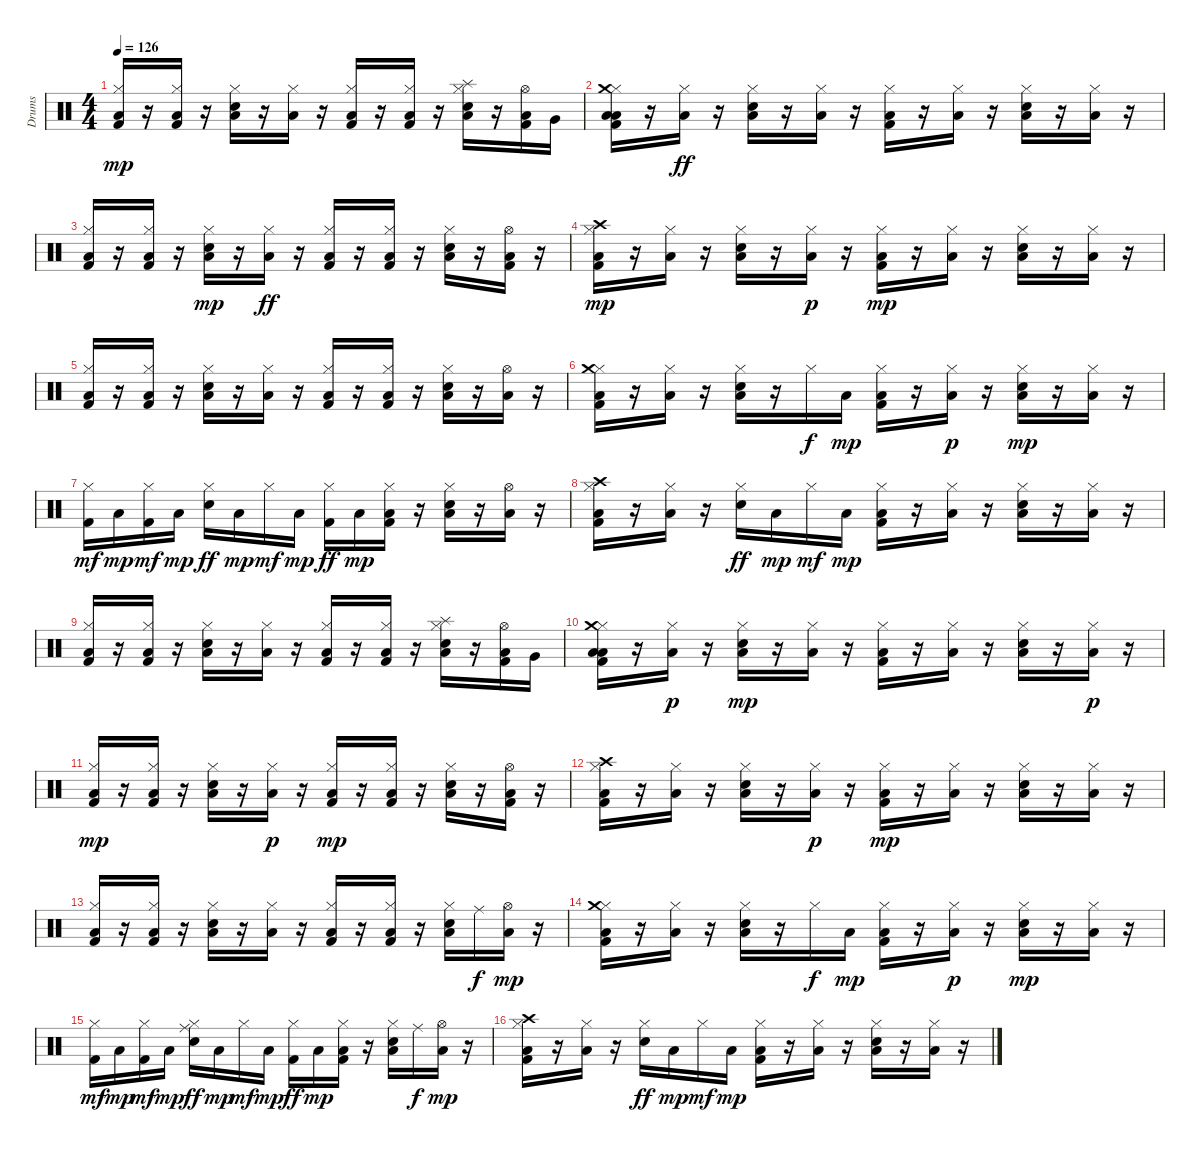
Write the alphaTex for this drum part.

\track ("Drums" "Drums") {instrument percussion}
\staff {score}
\articulation defaults
\ts (4 4)
\tempo 126
\clef neutral
\ks c
("Kick (hit) 2" "Hi-Hat (closed)" "Low Floor Tom (hit)").16{dy mp} r.16 ("Hi-Hat (closed)" "Kick (hit) 2" "Low Floor Tom (hit)").16 r.16 ("Hi-Hat (closed)" "Snare (hit) 2" "Low Floor Tom (hit)").16 r.16 ("Hi-Hat (closed)" "Low Floor Tom (hit)").16 r.16 ("Kick (hit) 2" "Hi-Hat (closed)" "Low Floor Tom (hit)").16 r.16 ("Hi-Hat (closed)" "Kick (hit) 2" "Low Floor Tom (hit)").16 r.16 ("Hi-Hat (closed)" "Snare (hit) 2" "Low Floor Tom (hit)" "Splash (hit)").16 r.16 ("Hi-Hat (open)" "Kick (hit) 2" "Low Floor Tom (hit)").16 "Very Low Tom (hit)".16 |
("Kick (hit) 2" "Hi-Hat (closed)" "Low Floor Tom (hit)" "Low Floor Tom (hit)" "Crash medium (hit)").16 r.16 ("Hi-Hat (closed)" "Low Floor Tom (hit)").16{dy ff} r.16 ("Hi-Hat (closed)" "Snare (hit) 2" "Low Floor Tom (hit)").16 r.16 ("Hi-Hat (closed)" "Low Floor Tom (hit)").16 r.16 ("Kick (hit) 2" "Hi-Hat (closed)" "Low Floor Tom (hit)").16 r.16 ("Hi-Hat (closed)" "Low Floor Tom (hit)").16 r.16 ("Hi-Hat (closed)" "Snare (hit) 2" "Low Floor Tom (hit)").16 r.16 ("Hi-Hat (closed)" "Low Floor Tom (hit)").16 r.16 |
("Kick (hit) 2" "Hi-Hat (closed)" "Low Floor Tom (hit)").16 r.16 ("Hi-Hat (closed)" "Kick (hit) 2" "Low Floor Tom (hit)").16 r.16 ("Hi-Hat (closed)" "Snare (hit) 2" "Low Floor Tom (hit)").16{dy mp} r.16 ("Hi-Hat (closed)" "Low Floor Tom (hit)").16{dy ff} r.16 ("Hi-Hat (closed)" "Kick (hit) 2" "Low Floor Tom (hit)").16 r.16 ("Kick (hit) 2" "Hi-Hat (closed)" "Low Floor Tom (hit)").16 r.16 ("Hi-Hat (closed)" "Snare (hit) 2" "Low Floor Tom (hit)").16 r.16 ("Hi-Hat (open)" "Kick (hit) 2" "Low Floor Tom (hit)").16 r.16 |
("Hi-Hat (closed)" "Kick (hit) 2" "Low Floor Tom (hit)" "Crash high (hit)").16{dy mp} r.16 ("Hi-Hat (closed)" "Low Floor Tom (hit)").16 r.16 ("Hi-Hat (closed)" "Snare (hit) 2" "Low Floor Tom (hit)").16 r.16 ("Hi-Hat (closed)" "Low Floor Tom (hit)").16{dy p} r.16 ("Kick (hit) 2" "Hi-Hat (closed)" "Low Floor Tom (hit)").16{dy mp} r.16 ("Hi-Hat (closed)" "Low Floor Tom (hit)").16 r.16 ("Snare (hit) 2" "Hi-Hat (closed)" "Low Floor Tom (hit)").16 r.16 ("Hi-Hat (closed)" "Low Floor Tom (hit)").16 r.16 |
("Hi-Hat (closed)" "Kick (hit) 2" "Low Floor Tom (hit)").16 r.16 ("Kick (hit) 2" "Hi-Hat (closed)" "Low Floor Tom (hit)").16 r.16 ("Hi-Hat (closed)" "Snare (hit) 2" "Low Floor Tom (hit)").16 r.16 ("Hi-Hat (closed)" "Low Floor Tom (hit)").16 r.16 ("Kick (hit) 2" "Hi-Hat (closed)" "Low Floor Tom (hit)").16 r.16 ("Hi-Hat (closed)" "Kick (hit) 2" "Low Floor Tom (hit)").16 r.16 ("Snare (hit) 2" "Hi-Hat (closed)" "Low Floor Tom (hit)").16 r.16 ("Hi-Hat (open)" "Low Floor Tom (hit)").16 r.16 |
("Hi-Hat (closed)" "Kick (hit) 2" "Low Floor Tom (hit)" "Crash medium (hit)").16 r.16 ("Hi-Hat (closed)" "Low Floor Tom (hit)").16 r.16 ("Snare (hit) 2" "Hi-Hat (closed)" "Low Floor Tom (hit)").16 r.16 "Hi-Hat (closed)".16{dy f} "Low Floor Tom (hit)".16{dy mp} ("Kick (hit) 2" "Hi-Hat (closed)" "Low Floor Tom (hit)").16 r.16 ("Hi-Hat (closed)" "Low Floor Tom (hit)").16{dy p} r.16 ("Snare (hit) 2" "Hi-Hat (closed)" "Low Floor Tom (hit)").16{dy mp} r.16 ("Hi-Hat (closed)" "Low Floor Tom (hit)").16 r.16 |
("Kick (hit) 2" "Hi-Hat (closed)").16{dy mf} "Low Floor Tom (hit)".16{dy mp} ("Hi-Hat (closed)" "Kick (hit) 2").16{dy mf} "Low Floor Tom (hit)".16{dy mp} ("Hi-Hat (closed)" "Snare (hit) 2").16{dy ff} "Low Floor Tom (hit)".16{dy mp} "Hi-Hat (closed)".16{dy mf} "Low Floor Tom (hit)".16{dy mp} ("Hi-Hat (closed)" "Kick (hit) 2").16{dy ff} "Low Floor Tom (hit)".16{dy mp} ("Hi-Hat (closed)" "Kick (hit) 2" "Low Floor Tom (hit)").16 r.16 ("Hi-Hat (closed)" "Snare (hit) 2" "Low Floor Tom (hit)").16 r.16 ("Hi-Hat (open)" "Low Floor Tom (hit)").16 r.16 |
("Hi-Hat (closed)" "Kick (hit) 2" "Low Floor Tom (hit)" "Crash high (hit)").16 r.16 ("Hi-Hat (closed)" "Low Floor Tom (hit)").16 r.16 ("Hi-Hat (closed)" "Snare (hit) 2").16{dy ff} "Low Floor Tom (hit)".16{dy mp} "Hi-Hat (closed)".16{dy mf} "Low Floor Tom (hit)".16{dy mp} ("Kick (hit) 2" "Hi-Hat (closed)" "Low Floor Tom (hit)").16 r.16 ("Hi-Hat (closed)" "Low Floor Tom (hit)").16 r.16 ("Hi-Hat (closed)" "Snare (hit) 2" "Low Floor Tom (hit)").16 r.16 ("Hi-Hat (closed)" "Low Floor Tom (hit)").16 r.16 |
("Kick (hit) 2" "Hi-Hat (closed)" "Low Floor Tom (hit)").16 r.16 ("Hi-Hat (closed)" "Kick (hit) 2" "Low Floor Tom (hit)").16 r.16 ("Hi-Hat (closed)" "Snare (hit) 2" "Low Floor Tom (hit)").16 r.16 ("Hi-Hat (closed)" "Low Floor Tom (hit)").16 r.16 ("Kick (hit) 2" "Hi-Hat (closed)" "Low Floor Tom (hit)").16 r.16 ("Hi-Hat (closed)" "Kick (hit) 2" "Low Floor Tom (hit)").16 r.16 ("Hi-Hat (closed)" "Snare (hit) 2" "Low Floor Tom (hit)" "Splash (hit)").16 r.16 ("Hi-Hat (open)" "Kick (hit) 2" "Low Floor Tom (hit)").16 "Very Low Tom (hit)".16 |
("Kick (hit) 2" "Hi-Hat (closed)" "Low Floor Tom (hit)" "Low Floor Tom (hit)" "Crash medium (hit)").16 r.16 ("Hi-Hat (closed)" "Low Floor Tom (hit)").16{dy p} r.16 ("Hi-Hat (closed)" "Snare (hit) 2" "Low Floor Tom (hit)").16{dy mp} r.16 ("Hi-Hat (closed)" "Low Floor Tom (hit)").16 r.16 ("Kick (hit) 2" "Hi-Hat (closed)" "Low Floor Tom (hit)").16 r.16 ("Hi-Hat (closed)" "Low Floor Tom (hit)").16 r.16 ("Hi-Hat (closed)" "Snare (hit) 2" "Low Floor Tom (hit)").16 r.16 ("Hi-Hat (closed)" "Low Floor Tom (hit)").16{dy p} r.16 |
("Kick (hit) 2" "Hi-Hat (closed)" "Low Floor Tom (hit)").16{dy mp} r.16 ("Hi-Hat (closed)" "Kick (hit) 2" "Low Floor Tom (hit)").16 r.16 ("Hi-Hat (closed)" "Snare (hit) 2" "Low Floor Tom (hit)").16 r.16 ("Hi-Hat (closed)" "Low Floor Tom (hit)").16{dy p} r.16 ("Hi-Hat (closed)" "Kick (hit) 2" "Low Floor Tom (hit)").16{dy mp} r.16 ("Kick (hit) 2" "Hi-Hat (closed)" "Low Floor Tom (hit)").16 r.16 ("Hi-Hat (closed)" "Snare (hit) 2" "Low Floor Tom (hit)").16 r.16 ("Hi-Hat (open)" "Kick (hit) 2" "Low Floor Tom (hit)").16 r.16 |
("Hi-Hat (closed)" "Kick (hit) 2" "Low Floor Tom (hit)" "Crash high (hit)").16 r.16 ("Hi-Hat (closed)" "Low Floor Tom (hit)").16 r.16 ("Hi-Hat (closed)" "Snare (hit) 2" "Low Floor Tom (hit)").16 r.16 ("Hi-Hat (closed)" "Low Floor Tom (hit)").16{dy p} r.16 ("Kick (hit) 2" "Hi-Hat (closed)" "Low Floor Tom (hit)").16{dy mp} r.16 ("Hi-Hat (closed)" "Low Floor Tom (hit)").16 r.16 ("Snare (hit) 2" "Hi-Hat (closed)" "Low Floor Tom (hit)").16 r.16 ("Hi-Hat (closed)" "Low Floor Tom (hit)").16 r.16 |
("Hi-Hat (closed)" "Kick (hit) 2" "Low Floor Tom (hit)").16 r.16 ("Kick (hit) 2" "Hi-Hat (closed)" "Low Floor Tom (hit)").16 r.16 ("Hi-Hat (closed)" "Snare (hit) 2" "Low Floor Tom (hit)").16 r.16 ("Hi-Hat (closed)" "Low Floor Tom (hit)").16 r.16 ("Kick (hit) 2" "Hi-Hat (closed)" "Low Floor Tom (hit)").16 r.16 ("Hi-Hat (closed)" "Kick (hit) 2" "Low Floor Tom (hit)").16 r.16 ("Snare (hit) 2" "Hi-Hat (closed)" "Low Floor Tom (hit)").16 "Ride (middle)".16{dy f} ("Hi-Hat (open)" "Low Floor Tom (hit)").16{dy mp} r.16 |
("Hi-Hat (closed)" "Kick (hit) 2" "Low Floor Tom (hit)" "Crash medium (hit)").16 r.16 ("Hi-Hat (closed)" "Low Floor Tom (hit)").16 r.16 ("Snare (hit) 2" "Hi-Hat (closed)" "Low Floor Tom (hit)").16 r.16 "Hi-Hat (closed)".16{dy f} "Low Floor Tom (hit)".16{dy mp} ("Kick (hit) 2" "Hi-Hat (closed)" "Low Floor Tom (hit)").16 r.16 ("Hi-Hat (closed)" "Low Floor Tom (hit)").16{dy p} r.16 ("Snare (hit) 2" "Hi-Hat (closed)" "Low Floor Tom (hit)").16{dy mp} r.16 ("Hi-Hat (closed)" "Low Floor Tom (hit)").16 r.16 |
("Kick (hit) 2" "Hi-Hat (closed)").16{dy mf} "Low Floor Tom (hit)".16{dy mp} ("Hi-Hat (closed)" "Kick (hit) 2").16{dy mf} "Low Floor Tom (hit)".16{dy mp} ("Hi-Hat (closed)" "Snare (hit) 2" "Ride (middle)").16{dy ff} "Low Floor Tom (hit)".16{dy mp} "Hi-Hat (closed)".16{dy mf} "Low Floor Tom (hit)".16{dy mp} ("Hi-Hat (closed)" "Kick (hit) 2").16{dy ff} "Low Floor Tom (hit)".16{dy mp} ("Hi-Hat (closed)" "Kick (hit) 2" "Low Floor Tom (hit)").16 r.16 ("Hi-Hat (closed)" "Snare (hit) 2" "Low Floor Tom (hit)").16 "Ride (middle)".16{dy f} ("Hi-Hat (open)" "Low Floor Tom (hit)").16{dy mp} r.16 |
("Hi-Hat (closed)" "Kick (hit) 2" "Low Floor Tom (hit)" "Crash high (hit)").16 r.16 ("Hi-Hat (closed)" "Low Floor Tom (hit)").16 r.16 ("Hi-Hat (closed)" "Snare (hit) 2").16{dy ff} "Low Floor Tom (hit)".16{dy mp} "Hi-Hat (closed)".16{dy mf} "Low Floor Tom (hit)".16{dy mp} ("Kick (hit) 2" "Hi-Hat (closed)" "Low Floor Tom (hit)").16 r.16 ("Hi-Hat (closed)" "Low Floor Tom (hit)").16 r.16 ("Hi-Hat (closed)" "Snare (hit) 2" "Low Floor Tom (hit)").16 r.16 ("Hi-Hat (closed)" "Low Floor Tom (hit)").16 r.16
